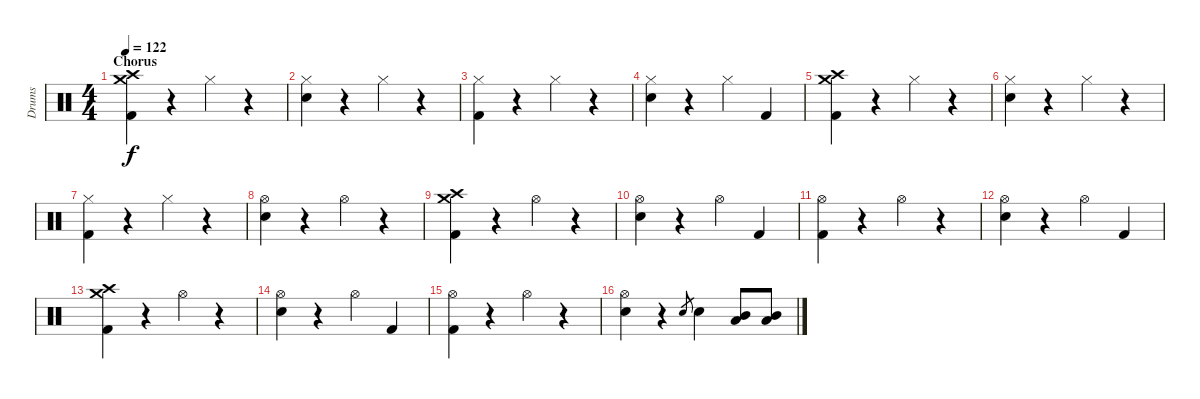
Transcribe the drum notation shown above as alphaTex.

\track ("Drums" "Drums") {instrument percussion}
\staff {score}
\articulation defaults
\ts (4 4)
\section ("" "Chorus")
\tempo 122
\clef neutral
\ks c
("Crash high (hit)" "Crash medium (hit)" "Kick (hit) 2").4{dy f} r.4 "Hi-Hat (closed)".4 r.4 |
("Hi-Hat (closed)" "Snare (hit) 2").4 r.4 "Hi-Hat (closed)".4 r.4 |
("Hi-Hat (closed)" "Kick (hit) 2").4 r.4 "Hi-Hat (closed)".4 r.4 |
("Hi-Hat (closed)" "Snare (hit) 2").4 r.4 "Hi-Hat (closed)".4 "Kick (hit) 2".4 |
("Crash high (hit)" "Crash medium (hit)" "Kick (hit) 2").4 r.4 "Hi-Hat (closed)".4 r.4 |
("Hi-Hat (closed)" "Snare (hit) 2").4 r.4 "Hi-Hat (closed)".4 r.4 |
("Hi-Hat (closed)" "Kick (hit) 2").4 r.4 "Hi-Hat (closed)".4 r.4 |
("Hi-Hat (open)" "Snare (hit) 2").4 r.4 "Hi-Hat (open)".4 r.4 |
("Crash high (hit)" "Crash medium (hit)" "Kick (hit) 2").4 r.4 "Hi-Hat (open)".4 r.4 |
("Hi-Hat (open)" "Snare (hit) 2").4 r.4 "Hi-Hat (open)".4 "Kick (hit) 2".4 |
("Hi-Hat (open)" "Kick (hit) 2").4 r.4 "Hi-Hat (open)".4 r.4 |
("Hi-Hat (open)" "Snare (hit) 2").4 r.4 "Hi-Hat (open)".4 "Kick (hit) 2".4 |
("Crash high (hit)" "Crash medium (hit)" "Kick (hit) 2").4 r.4 "Hi-Hat (open)".4 r.4 |
("Hi-Hat (open)" "Snare (hit) 2").4 r.4 "Hi-Hat (open)".4 "Kick (hit) 2".4 |
("Hi-Hat (open)" "Kick (hit) 2").4 r.4 "Hi-Hat (open)".4 r.4 |
("Hi-Hat (open)" "Snare (hit) 2").4 r.4 "Snare (hit) 2".8{gr} "Snare (hit) 2".4 ("Mid Tom (hit)" "Low Tom (hit)").8 ("Mid Tom (hit)" "Low Tom (hit)").8
